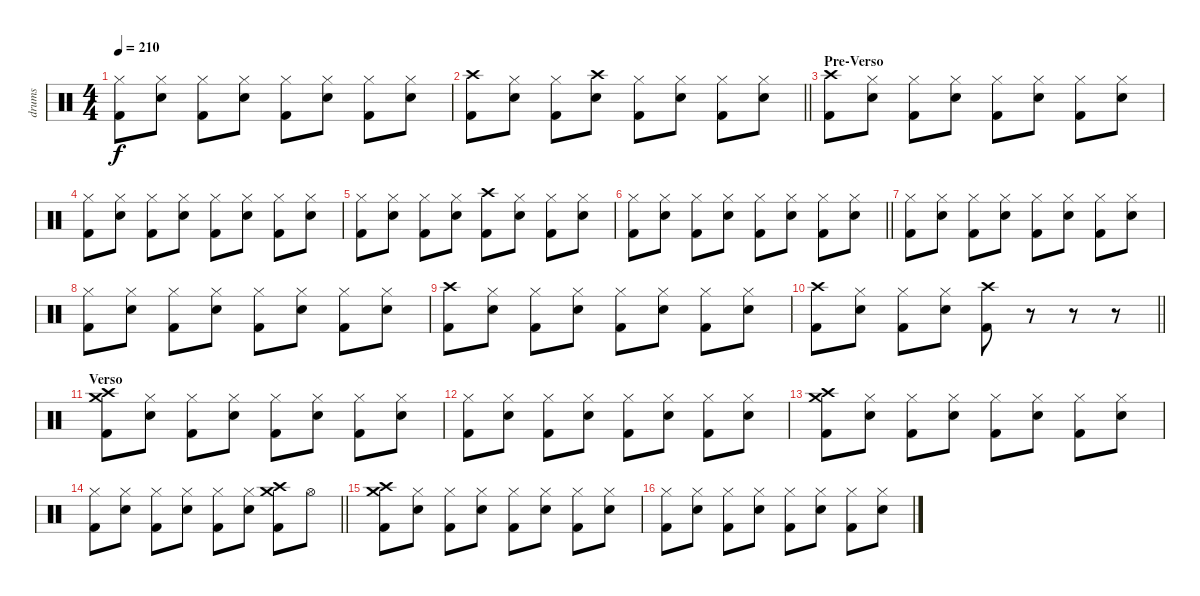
\track ("drums" "drums") {instrument percussion}
\staff {score}
\articulation defaults
\ts (4 4)
\tempo 210
\clef neutral
\ks c
("Hi-Hat (closed)" "Kick (hit) 2").8{dy f} ("Hi-Hat (closed)" "Electric Snare (hit)").8 ("Hi-Hat (closed)" "Kick (hit) 2").8 ("Hi-Hat (closed)" "Electric Snare (hit)").8 ("Hi-Hat (closed)" "Kick (hit) 2").8 ("Hi-Hat (closed)" "Electric Snare (hit)").8 ("Hi-Hat (closed)" "Kick (hit) 2").8 ("Hi-Hat (closed)" "Electric Snare (hit)").8 |
\barLineRight lightlight
("Crash high (hit)" "Kick (hit) 2").8 ("Hi-Hat (closed)" "Electric Snare (hit)").8 ("Hi-Hat (closed)" "Kick (hit) 2").8 ("Crash high (hit)" "Electric Snare (hit)").8 ("Hi-Hat (closed)" "Kick (hit) 2").8 ("Hi-Hat (closed)" "Electric Snare (hit)").8 ("Hi-Hat (closed)" "Kick (hit) 2").8 ("Hi-Hat (closed)" "Electric Snare (hit)").8 |
\section ("" "Pre-Verso")
("Crash high (hit)" "Kick (hit) 2").8 ("Hi-Hat (closed)" "Electric Snare (hit)").8 ("Hi-Hat (closed)" "Kick (hit) 2").8 ("Hi-Hat (closed)" "Electric Snare (hit)").8 ("Hi-Hat (closed)" "Kick (hit) 2").8 ("Hi-Hat (closed)" "Electric Snare (hit)").8 ("Hi-Hat (closed)" "Kick (hit) 2").8 ("Hi-Hat (closed)" "Electric Snare (hit)").8 |
("Hi-Hat (closed)" "Kick (hit) 2").8 ("Hi-Hat (closed)" "Electric Snare (hit)").8 ("Hi-Hat (closed)" "Kick (hit) 2").8 ("Hi-Hat (closed)" "Electric Snare (hit)").8 ("Hi-Hat (closed)" "Kick (hit) 2").8 ("Hi-Hat (closed)" "Electric Snare (hit)").8 ("Hi-Hat (closed)" "Kick (hit) 2").8 ("Hi-Hat (closed)" "Electric Snare (hit)").8 |
("Hi-Hat (closed)" "Kick (hit) 2").8 ("Hi-Hat (closed)" "Electric Snare (hit)").8 ("Hi-Hat (closed)" "Kick (hit) 2").8 ("Hi-Hat (closed)" "Electric Snare (hit)").8 ("Crash high (hit)" "Kick (hit) 2").8 ("Hi-Hat (closed)" "Electric Snare (hit)").8 ("Hi-Hat (closed)" "Kick (hit) 2").8 ("Hi-Hat (closed)" "Electric Snare (hit)").8 |
\barLineRight lightlight
("Hi-Hat (closed)" "Kick (hit) 2").8 ("Hi-Hat (closed)" "Electric Snare (hit)").8 ("Hi-Hat (closed)" "Kick (hit) 2").8 ("Hi-Hat (closed)" "Electric Snare (hit)").8 ("Hi-Hat (closed)" "Kick (hit) 2").8 ("Hi-Hat (closed)" "Electric Snare (hit)").8 ("Hi-Hat (closed)" "Kick (hit) 2").8 ("Hi-Hat (closed)" "Electric Snare (hit)").8 |
("Hi-Hat (closed)" "Kick (hit) 2").8 ("Hi-Hat (closed)" "Electric Snare (hit)").8 ("Hi-Hat (closed)" "Kick (hit) 2").8 ("Hi-Hat (closed)" "Electric Snare (hit)").8 ("Hi-Hat (closed)" "Kick (hit) 2").8 ("Hi-Hat (closed)" "Electric Snare (hit)").8 ("Hi-Hat (closed)" "Kick (hit) 2").8 ("Hi-Hat (closed)" "Electric Snare (hit)").8 |
("Hi-Hat (closed)" "Kick (hit) 2").8 ("Hi-Hat (closed)" "Electric Snare (hit)").8 ("Hi-Hat (closed)" "Kick (hit) 2").8 ("Hi-Hat (closed)" "Electric Snare (hit)").8 ("Hi-Hat (closed)" "Kick (hit) 2").8 ("Hi-Hat (closed)" "Electric Snare (hit)").8 ("Hi-Hat (closed)" "Kick (hit) 2").8 ("Hi-Hat (closed)" "Electric Snare (hit)").8 |
("Crash high (hit)" "Kick (hit) 2").8 ("Hi-Hat (closed)" "Electric Snare (hit)").8 ("Hi-Hat (closed)" "Kick (hit) 2").8 ("Hi-Hat (closed)" "Electric Snare (hit)").8 ("Hi-Hat (closed)" "Kick (hit) 2").8 ("Hi-Hat (closed)" "Electric Snare (hit)").8 ("Hi-Hat (closed)" "Kick (hit) 2").8 ("Hi-Hat (closed)" "Electric Snare (hit)").8 |
\barLineRight lightlight
("Crash high (hit)" "Kick (hit) 2").8 ("Hi-Hat (closed)" "Electric Snare (hit)").8 ("Hi-Hat (closed)" "Kick (hit) 2").8 ("Hi-Hat (closed)" "Electric Snare (hit)").8 ("Crash high (hit)" "Kick (hit) 2").8 r.8 r.8 r.8 |
\section ("" "Verso")
("Crash high (hit)" "Crash medium (hit)" "Kick (hit) 2").8 ("Hi-Hat (closed)" "Electric Snare (hit)").8 ("Hi-Hat (closed)" "Kick (hit) 2").8 ("Hi-Hat (closed)" "Electric Snare (hit)").8 ("Hi-Hat (closed)" "Kick (hit) 2").8 ("Hi-Hat (closed)" "Electric Snare (hit)").8 ("Hi-Hat (closed)" "Kick (hit) 2").8 ("Hi-Hat (closed)" "Electric Snare (hit)").8 |
("Hi-Hat (closed)" "Kick (hit) 2").8 ("Hi-Hat (closed)" "Electric Snare (hit)").8 ("Hi-Hat (closed)" "Kick (hit) 2").8 ("Hi-Hat (closed)" "Electric Snare (hit)").8 ("Hi-Hat (closed)" "Kick (hit) 2").8 ("Hi-Hat (closed)" "Electric Snare (hit)").8 ("Hi-Hat (closed)" "Kick (hit) 2").8 ("Hi-Hat (closed)" "Electric Snare (hit)").8 |
("Crash high (hit)" "Crash medium (hit)" "Kick (hit) 2").8 ("Hi-Hat (closed)" "Electric Snare (hit)").8 ("Hi-Hat (closed)" "Kick (hit) 2").8 ("Hi-Hat (closed)" "Electric Snare (hit)").8 ("Hi-Hat (closed)" "Kick (hit) 2").8 ("Hi-Hat (closed)" "Electric Snare (hit)").8 ("Hi-Hat (closed)" "Kick (hit) 2").8 ("Hi-Hat (closed)" "Electric Snare (hit)").8 |
\barLineRight lightlight
("Hi-Hat (closed)" "Kick (hit) 2").8 ("Hi-Hat (closed)" "Electric Snare (hit)").8 ("Hi-Hat (closed)" "Kick (hit) 2").8 ("Hi-Hat (closed)" "Electric Snare (hit)").8 ("Hi-Hat (closed)" "Kick (hit) 2").8 ("Hi-Hat (closed)" "Electric Snare (hit)").8 ("Crash high (hit)" "Crash medium (hit)" "Kick (hit) 2").8 "Hi-Hat (open)".8 |
("Crash high (hit)" "Crash medium (hit)" "Kick (hit) 2").8 ("Hi-Hat (closed)" "Electric Snare (hit)").8 ("Hi-Hat (closed)" "Kick (hit) 2").8 ("Hi-Hat (closed)" "Electric Snare (hit)").8 ("Hi-Hat (closed)" "Kick (hit) 2").8 ("Hi-Hat (closed)" "Electric Snare (hit)").8 ("Hi-Hat (closed)" "Kick (hit) 2").8 ("Hi-Hat (closed)" "Electric Snare (hit)").8 |
("Hi-Hat (closed)" "Kick (hit) 2").8 ("Hi-Hat (closed)" "Electric Snare (hit)").8 ("Hi-Hat (closed)" "Kick (hit) 2").8 ("Hi-Hat (closed)" "Electric Snare (hit)").8 ("Hi-Hat (closed)" "Kick (hit) 2").8 ("Hi-Hat (closed)" "Electric Snare (hit)").8 ("Hi-Hat (closed)" "Kick (hit) 2").8 ("Hi-Hat (closed)" "Electric Snare (hit)").8
